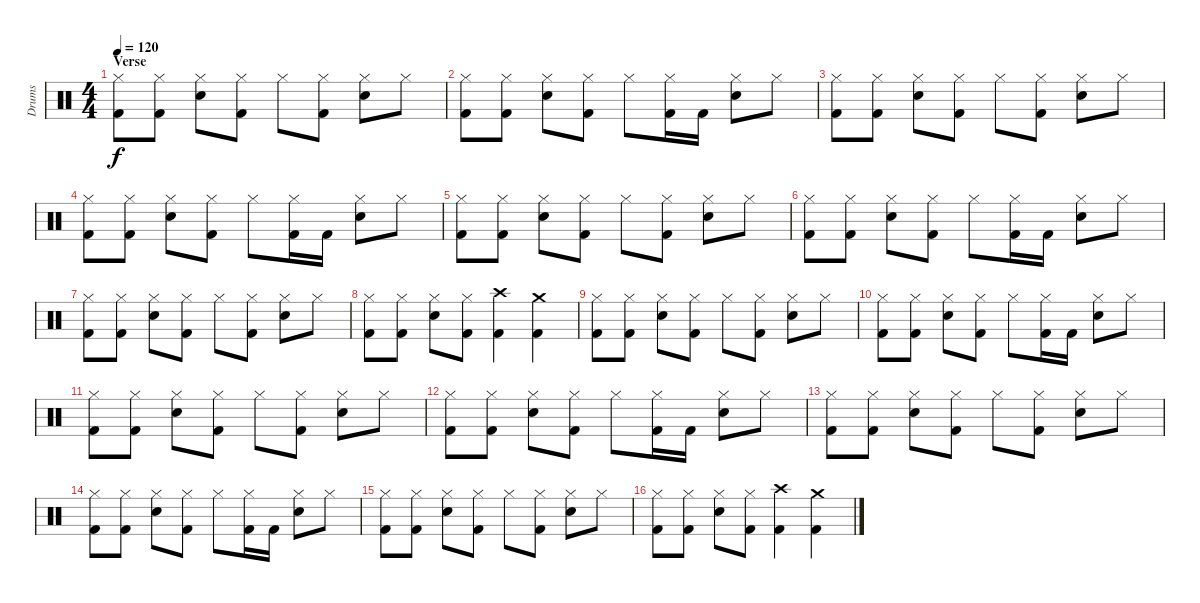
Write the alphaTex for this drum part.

\track ("Drums" "Drums") {instrument percussion}
\staff {score}
\articulation defaults
\ts (4 4)
\section ("" "Verse")
\tempo 120
\clef neutral
\ks c
("Hi-Hat (closed)" "Kick (hit) 2").8{dy f} ("Hi-Hat (closed)" "Kick (hit) 2").8 ("Hi-Hat (closed)" "Snare (hit) 2").8 ("Hi-Hat (closed)" "Kick (hit) 2").8 "Hi-Hat (closed)".8 ("Hi-Hat (closed)" "Kick (hit) 2").8 ("Hi-Hat (closed)" "Snare (hit) 2").8 "Hi-Hat (closed)".8 |
("Hi-Hat (closed)" "Kick (hit) 2").8 ("Hi-Hat (closed)" "Kick (hit) 2").8 ("Hi-Hat (closed)" "Snare (hit) 2").8 ("Hi-Hat (closed)" "Kick (hit) 2").8 "Hi-Hat (closed)".8 ("Hi-Hat (closed)" "Kick (hit) 2").16 "Kick (hit) 2".16 ("Hi-Hat (closed)" "Snare (hit) 2").8 "Hi-Hat (closed)".8 |
("Hi-Hat (closed)" "Kick (hit) 2").8 ("Hi-Hat (closed)" "Kick (hit) 2").8 ("Hi-Hat (closed)" "Snare (hit) 2").8 ("Hi-Hat (closed)" "Kick (hit) 2").8 "Hi-Hat (closed)".8 ("Hi-Hat (closed)" "Kick (hit) 2").8 ("Hi-Hat (closed)" "Snare (hit) 2").8 "Hi-Hat (closed)".8 |
("Hi-Hat (closed)" "Kick (hit) 2").8 ("Hi-Hat (closed)" "Kick (hit) 2").8 ("Hi-Hat (closed)" "Snare (hit) 2").8 ("Hi-Hat (closed)" "Kick (hit) 2").8 "Hi-Hat (closed)".8 ("Hi-Hat (closed)" "Kick (hit) 2").16 "Kick (hit) 2".16 ("Hi-Hat (closed)" "Snare (hit) 2").8 "Hi-Hat (closed)".8 |
("Hi-Hat (closed)" "Kick (hit) 2").8 ("Hi-Hat (closed)" "Kick (hit) 2").8 ("Hi-Hat (closed)" "Snare (hit) 2").8 ("Hi-Hat (closed)" "Kick (hit) 2").8 "Hi-Hat (closed)".8 ("Hi-Hat (closed)" "Kick (hit) 2").8 ("Hi-Hat (closed)" "Snare (hit) 2").8 "Hi-Hat (closed)".8 |
("Hi-Hat (closed)" "Kick (hit) 2").8 ("Hi-Hat (closed)" "Kick (hit) 2").8 ("Hi-Hat (closed)" "Snare (hit) 2").8 ("Hi-Hat (closed)" "Kick (hit) 2").8 "Hi-Hat (closed)".8 ("Hi-Hat (closed)" "Kick (hit) 2").16 "Kick (hit) 2".16 ("Hi-Hat (closed)" "Snare (hit) 2").8 "Hi-Hat (closed)".8 |
("Hi-Hat (closed)" "Kick (hit) 2").8 ("Hi-Hat (closed)" "Kick (hit) 2").8 ("Hi-Hat (closed)" "Snare (hit) 2").8 ("Hi-Hat (closed)" "Kick (hit) 2").8 "Hi-Hat (closed)".8 ("Hi-Hat (closed)" "Kick (hit) 2").8 ("Hi-Hat (closed)" "Snare (hit) 2").8 "Hi-Hat (closed)".8 |
("Hi-Hat (closed)" "Kick (hit) 2").8 ("Hi-Hat (closed)" "Kick (hit) 2").8 ("Hi-Hat (closed)" "Snare (hit) 2").8 ("Hi-Hat (closed)" "Kick (hit) 2").8 ("Crash high (hit)" "Kick (hit) 2").4 ("Crash medium (hit)" "Kick (hit) 2").4 |
("Hi-Hat (closed)" "Kick (hit) 2").8 ("Hi-Hat (closed)" "Kick (hit) 2").8 ("Hi-Hat (closed)" "Snare (hit) 2").8 ("Hi-Hat (closed)" "Kick (hit) 2").8 "Hi-Hat (closed)".8 ("Hi-Hat (closed)" "Kick (hit) 2").8 ("Hi-Hat (closed)" "Snare (hit) 2").8 "Hi-Hat (closed)".8 |
("Hi-Hat (closed)" "Kick (hit) 2").8 ("Hi-Hat (closed)" "Kick (hit) 2").8 ("Hi-Hat (closed)" "Snare (hit) 2").8 ("Hi-Hat (closed)" "Kick (hit) 2").8 "Hi-Hat (closed)".8 ("Hi-Hat (closed)" "Kick (hit) 2").16 "Kick (hit) 2".16 ("Hi-Hat (closed)" "Snare (hit) 2").8 "Hi-Hat (closed)".8 |
("Hi-Hat (closed)" "Kick (hit) 2").8 ("Hi-Hat (closed)" "Kick (hit) 2").8 ("Hi-Hat (closed)" "Snare (hit) 2").8 ("Hi-Hat (closed)" "Kick (hit) 2").8 "Hi-Hat (closed)".8 ("Hi-Hat (closed)" "Kick (hit) 2").8 ("Hi-Hat (closed)" "Snare (hit) 2").8 "Hi-Hat (closed)".8 |
("Hi-Hat (closed)" "Kick (hit) 2").8 ("Hi-Hat (closed)" "Kick (hit) 2").8 ("Hi-Hat (closed)" "Snare (hit) 2").8 ("Hi-Hat (closed)" "Kick (hit) 2").8 "Hi-Hat (closed)".8 ("Hi-Hat (closed)" "Kick (hit) 2").16 "Kick (hit) 2".16 ("Hi-Hat (closed)" "Snare (hit) 2").8 "Hi-Hat (closed)".8 |
("Hi-Hat (closed)" "Kick (hit) 2").8 ("Hi-Hat (closed)" "Kick (hit) 2").8 ("Hi-Hat (closed)" "Snare (hit) 2").8 ("Hi-Hat (closed)" "Kick (hit) 2").8 "Hi-Hat (closed)".8 ("Hi-Hat (closed)" "Kick (hit) 2").8 ("Hi-Hat (closed)" "Snare (hit) 2").8 "Hi-Hat (closed)".8 |
("Hi-Hat (closed)" "Kick (hit) 2").8 ("Hi-Hat (closed)" "Kick (hit) 2").8 ("Hi-Hat (closed)" "Snare (hit) 2").8 ("Hi-Hat (closed)" "Kick (hit) 2").8 "Hi-Hat (closed)".8 ("Hi-Hat (closed)" "Kick (hit) 2").16 "Kick (hit) 2".16 ("Hi-Hat (closed)" "Snare (hit) 2").8 "Hi-Hat (closed)".8 |
("Hi-Hat (closed)" "Kick (hit) 2").8 ("Hi-Hat (closed)" "Kick (hit) 2").8 ("Hi-Hat (closed)" "Snare (hit) 2").8 ("Hi-Hat (closed)" "Kick (hit) 2").8 "Hi-Hat (closed)".8 ("Hi-Hat (closed)" "Kick (hit) 2").8 ("Hi-Hat (closed)" "Snare (hit) 2").8 "Hi-Hat (closed)".8 |
("Hi-Hat (closed)" "Kick (hit) 2").8 ("Hi-Hat (closed)" "Kick (hit) 2").8 ("Hi-Hat (closed)" "Snare (hit) 2").8 ("Hi-Hat (closed)" "Kick (hit) 2").8 ("Crash high (hit)" "Kick (hit) 2").4 ("Crash medium (hit)" "Kick (hit) 2").4
